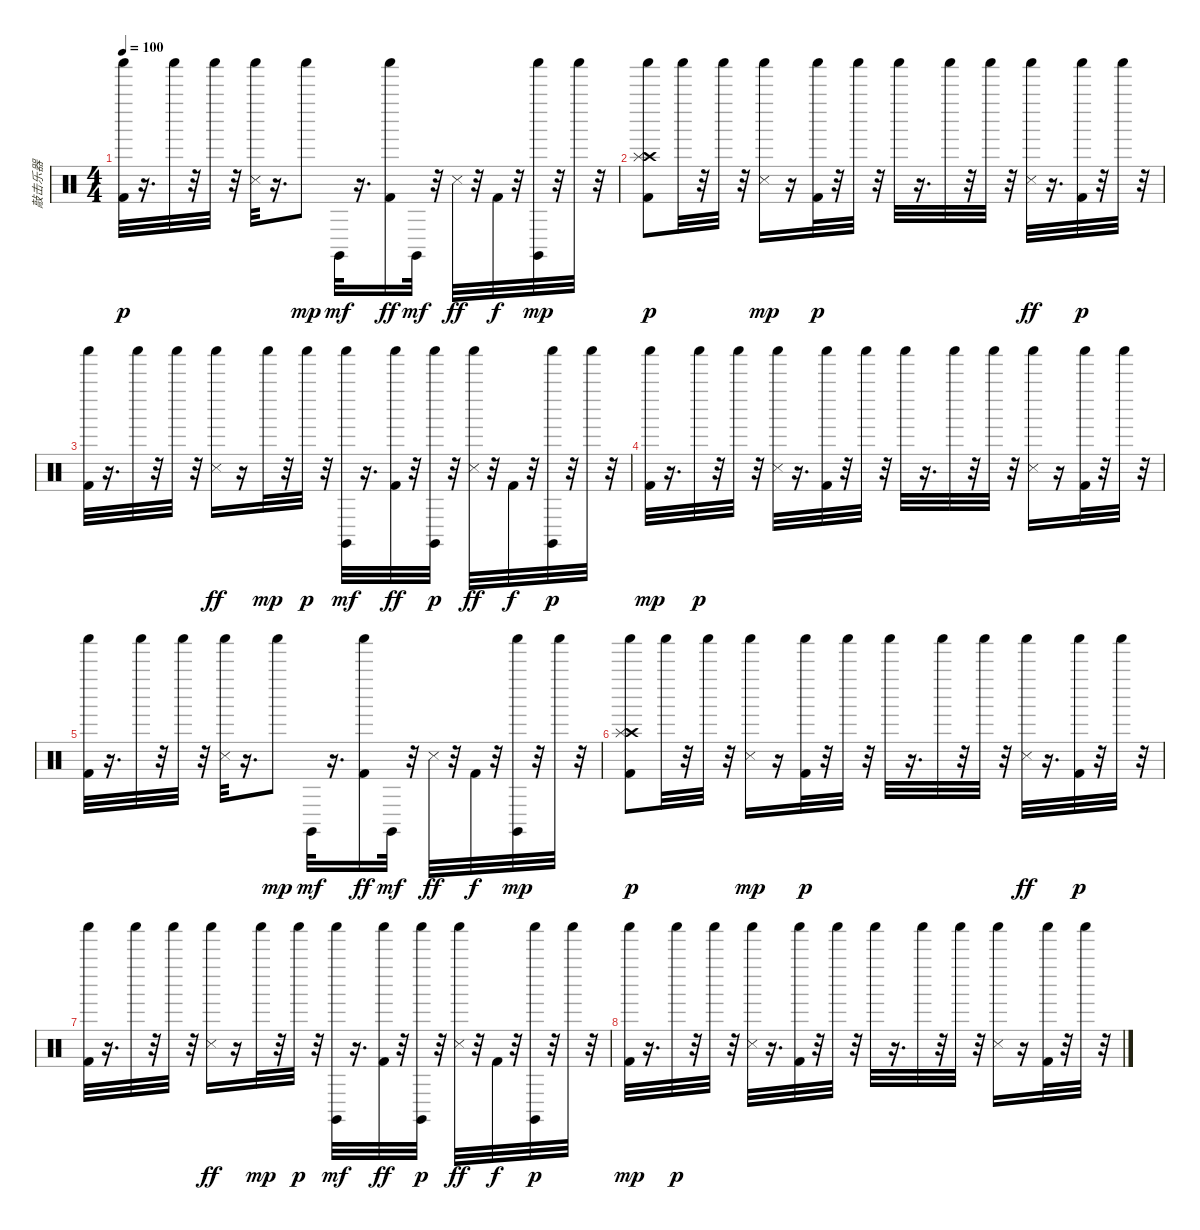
\track ("敲击乐器" "敲击乐器") {instrument percussion}
\staff {score}
\articulation defaults
\ts (4 4)
\tempo 100
\clef neutral
\ks c
("Shaker (hit)" "Kick (hit) 2").32{dy p} r.16{d} "Shaker (hit)".32 r.32 "Shaker (hit)".32 r.32 ("Snare (side stick) 3" "Shaker (hit)").32 r.16{d} "Shaker (hit)".8{dy mp} "Claves (hit)".32{dy mf} r.16{d} ("Shaker (hit)" "Kick (hit) 2").16{dy ff} "Claves (hit)".32{dy mf} r.32 "Snare (side stick) 3".32{dy ff} r.32 "Kick (hit) 2".32{dy f} r.32 ("Claves (hit)" "Shaker (hit)").32{dy mp} r.32 "Shaker (hit)".32 r.32 |
("Crash high (hit)" "Splash (hit)" "Shaker (hit)" "Kick (hit) 2").8{dy p} "Shaker (hit)".32 r.32 "Shaker (hit)".32 r.32 ("Shaker (hit)" "Snare (side stick) 3").16{dy mp} r.16 ("Kick (hit) 2" "Shaker (hit)").32{dy p} r.32 "Shaker (hit)".32 r.32 "Shaker (hit)".32 r.16{d} "Shaker (hit)".32 r.32 "Shaker (hit)".32 r.32 ("Shaker (hit)" "Snare (side stick) 3").32{dy ff} r.16{d} ("Kick (hit) 2" "Shaker (hit)").32{dy p} r.32 "Shaker (hit)".32 r.32 |
("Shaker (hit)" "Kick (hit) 2").32 r.16{d} "Shaker (hit)".32 r.32 "Shaker (hit)".32 r.32 ("Shaker (hit)" "Snare (side stick) 3").16{dy ff} r.16 "Shaker (hit)".32{dy mp} r.32 "Shaker (hit)".32{dy p} r.32 ("Shaker (hit)" "Claves (hit)").32{dy mf} r.16{d} ("Shaker (hit)" "Kick (hit) 2").32{dy ff} r.32 ("Claves (hit)" "Shaker (hit)").32{dy p} r.32 ("Shaker (hit)" "Snare (side stick) 3").32{dy ff} r.32 "Kick (hit) 2".32{dy f} r.32 ("Claves (hit)" "Shaker (hit)").32{dy p} r.32 "Shaker (hit)".32 r.32 |
("Kick (hit) 2" "Shaker (hit)").32{dy mp} r.16{d} "Shaker (hit)".32{dy p} r.32 "Shaker (hit)".32 r.32 ("Snare (side stick) 3" "Shaker (hit)").32 r.16{d} ("Kick (hit) 2" "Shaker (hit)").32 r.32 "Shaker (hit)".32 r.32 "Shaker (hit)".32 r.16{d} "Shaker (hit)".32 r.32 "Shaker (hit)".32 r.32 ("Snare (side stick) 3" "Shaker (hit)").16 r.16 ("Kick (hit) 2" "Shaker (hit)").32 r.32 "Shaker (hit)".32 r.32 |
("Shaker (hit)" "Kick (hit) 2").32 r.16{d} "Shaker (hit)".32 r.32 "Shaker (hit)".32 r.32 ("Snare (side stick) 3" "Shaker (hit)").32 r.16{d} "Shaker (hit)".8{dy mp} "Claves (hit)".32{dy mf} r.16{d} ("Shaker (hit)" "Kick (hit) 2").16{dy ff} "Claves (hit)".32{dy mf} r.32 "Snare (side stick) 3".32{dy ff} r.32 "Kick (hit) 2".32{dy f} r.32 ("Claves (hit)" "Shaker (hit)").32{dy mp} r.32 "Shaker (hit)".32 r.32 |
("Crash high (hit)" "Splash (hit)" "Shaker (hit)" "Kick (hit) 2").8{dy p} "Shaker (hit)".32 r.32 "Shaker (hit)".32 r.32 ("Shaker (hit)" "Snare (side stick) 3").16{dy mp} r.16 ("Kick (hit) 2" "Shaker (hit)").32{dy p} r.32 "Shaker (hit)".32 r.32 "Shaker (hit)".32 r.16{d} "Shaker (hit)".32 r.32 "Shaker (hit)".32 r.32 ("Shaker (hit)" "Snare (side stick) 3").32{dy ff} r.16{d} ("Kick (hit) 2" "Shaker (hit)").32{dy p} r.32 "Shaker (hit)".32 r.32 |
("Shaker (hit)" "Kick (hit) 2").32 r.16{d} "Shaker (hit)".32 r.32 "Shaker (hit)".32 r.32 ("Shaker (hit)" "Snare (side stick) 3").16{dy ff} r.16 "Shaker (hit)".32{dy mp} r.32 "Shaker (hit)".32{dy p} r.32 ("Shaker (hit)" "Claves (hit)").32{dy mf} r.16{d} ("Shaker (hit)" "Kick (hit) 2").32{dy ff} r.32 ("Claves (hit)" "Shaker (hit)").32{dy p} r.32 ("Shaker (hit)" "Snare (side stick) 3").32{dy ff} r.32 "Kick (hit) 2".32{dy f} r.32 ("Claves (hit)" "Shaker (hit)").32{dy p} r.32 "Shaker (hit)".32 r.32 |
("Kick (hit) 2" "Shaker (hit)").32{dy mp} r.16{d} "Shaker (hit)".32{dy p} r.32 "Shaker (hit)".32 r.32 ("Snare (side stick) 3" "Shaker (hit)").32 r.16{d} ("Kick (hit) 2" "Shaker (hit)").32 r.32 "Shaker (hit)".32 r.32 "Shaker (hit)".32 r.16{d} "Shaker (hit)".32 r.32 "Shaker (hit)".32 r.32 ("Snare (side stick) 3" "Shaker (hit)").16 r.16 ("Kick (hit) 2" "Shaker (hit)").32 r.32 "Shaker (hit)".32 r.32
